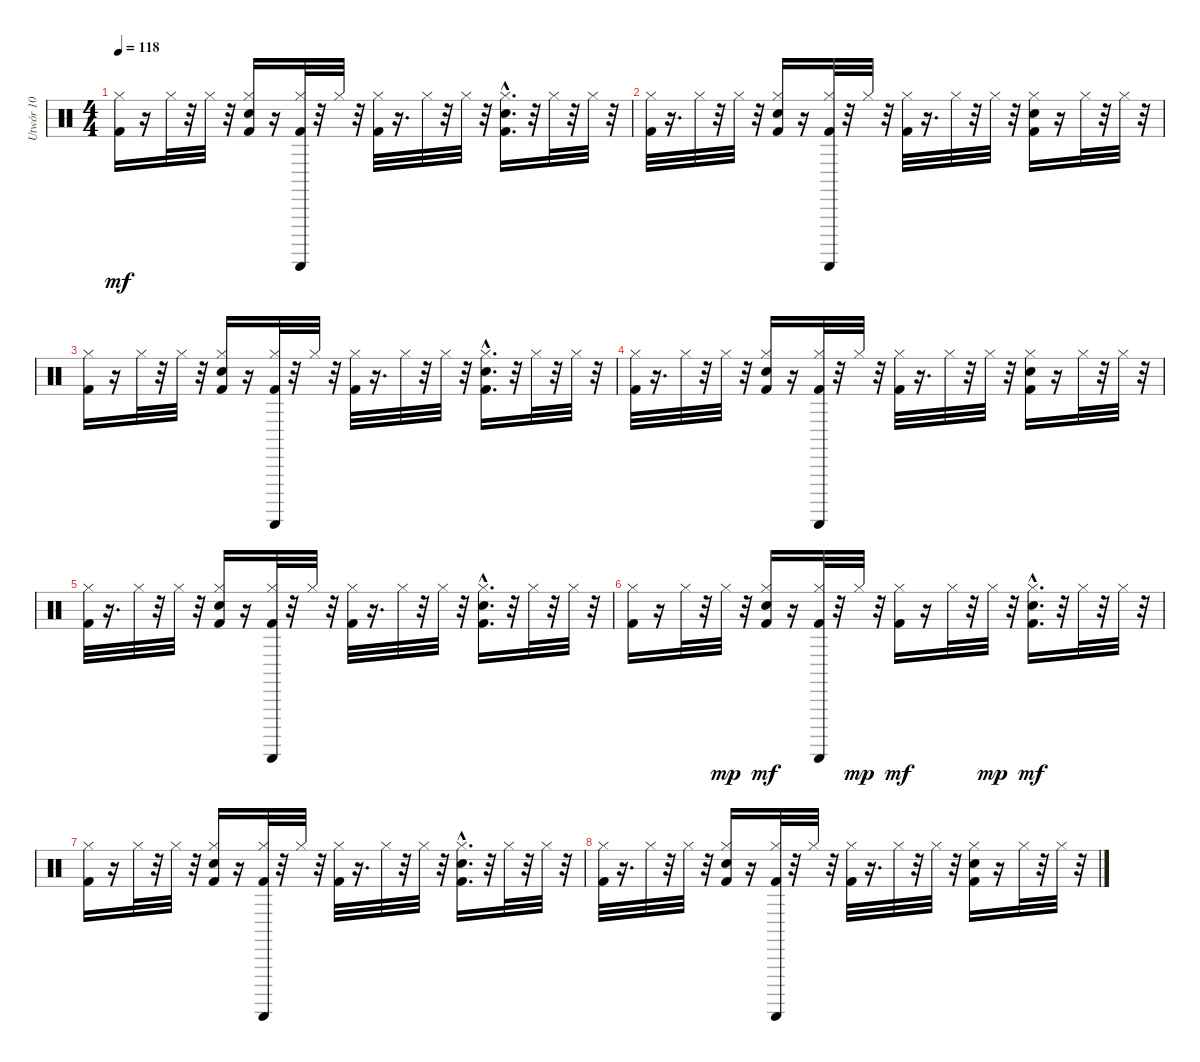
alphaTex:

\track ("Utwór 10" "Utwór 10") {instrument percussion}
\staff {score}
\articulation defaults
\ts (4 4)
\tempo 118
\clef neutral
\ks c
("Kick (hit) 2" "Hi-Hat (closed)").16{dy mf} r.16 "Hi-Hat (closed)".32 r.32 "Hi-Hat (closed)".32 r.32 ("Kick (hit) 2" "Snare (hit) 2" "Hi-Hat (closed)").16 r.16 ("Kick (hit) 2" "Hi-Hat (closed)" "Guiro (scrap-return)").32 r.32 "Hi-Hat (closed)".32 r.32 ("Kick (hit) 2" "Hi-Hat (closed)").32 r.16{d} "Hi-Hat (closed)".32 r.32 "Hi-Hat (closed)".32 r.32 ("Kick (hit) 2" "Snare (hit) 2"{hac} "Hi-Hat (closed)").16{d} r.32 "Hi-Hat (closed)".32 r.32 "Hi-Hat (closed)".32 r.32 |
("Kick (hit) 2" "Hi-Hat (closed)").32 r.16{d} "Hi-Hat (closed)".32 r.32 "Hi-Hat (closed)".32 r.32 ("Kick (hit) 2" "Snare (hit) 2" "Hi-Hat (closed)").16 r.16 ("Kick (hit) 2" "Hi-Hat (closed)" "Guiro (scrap-return)").32 r.32 "Hi-Hat (closed)".32 r.32 ("Kick (hit) 2" "Hi-Hat (closed)").32 r.16{d} "Hi-Hat (closed)".32 r.32 "Hi-Hat (closed)".32 r.32 ("Kick (hit) 2" "Snare (hit) 2" "Hi-Hat (closed)").16 r.16 "Hi-Hat (closed)".32 r.32 "Hi-Hat (closed)".32 r.32 |
("Kick (hit) 2" "Hi-Hat (closed)").16 r.16 "Hi-Hat (closed)".32 r.32 "Hi-Hat (closed)".32 r.32 ("Kick (hit) 2" "Snare (hit) 2" "Hi-Hat (closed)").16 r.16 ("Kick (hit) 2" "Hi-Hat (closed)" "Guiro (scrap-return)").32 r.32 "Hi-Hat (closed)".32 r.32 ("Kick (hit) 2" "Hi-Hat (closed)").32 r.16{d} "Hi-Hat (closed)".32 r.32 "Hi-Hat (closed)".32 r.32 ("Kick (hit) 2" "Snare (hit) 2"{hac} "Hi-Hat (closed)").16{d} r.32 "Hi-Hat (closed)".32 r.32 "Hi-Hat (closed)".32 r.32 |
("Kick (hit) 2" "Hi-Hat (closed)").32 r.16{d} "Hi-Hat (closed)".32 r.32 "Hi-Hat (closed)".32 r.32 ("Kick (hit) 2" "Snare (hit) 2" "Hi-Hat (closed)").16 r.16 ("Kick (hit) 2" "Hi-Hat (closed)" "Guiro (scrap-return)").32 r.32 "Hi-Hat (closed)".32 r.32 ("Kick (hit) 2" "Hi-Hat (closed)").32 r.16{d} "Hi-Hat (closed)".32 r.32 "Hi-Hat (closed)".32 r.32 ("Kick (hit) 2" "Snare (hit) 2" "Hi-Hat (closed)").16 r.16 "Hi-Hat (closed)".32 r.32 "Hi-Hat (closed)".32 r.32 |
("Kick (hit) 2" "Hi-Hat (closed)").32 r.16{d} "Hi-Hat (closed)".32 r.32 "Hi-Hat (closed)".32 r.32 ("Kick (hit) 2" "Snare (hit) 2" "Hi-Hat (closed)").16 r.16 ("Kick (hit) 2" "Hi-Hat (closed)" "Guiro (scrap-return)").32 r.32 "Hi-Hat (closed)".32 r.32 ("Kick (hit) 2" "Hi-Hat (closed)").32 r.16{d} "Hi-Hat (closed)".32 r.32 "Hi-Hat (closed)".32 r.32 ("Kick (hit) 2" "Snare (hit) 2"{hac} "Hi-Hat (closed)").16{d} r.32 "Hi-Hat (closed)".32 r.32 "Hi-Hat (closed)".32 r.32 |
("Kick (hit) 2" "Hi-Hat (closed)").16 r.16 "Hi-Hat (closed)".32 r.32 "Hi-Hat (closed)".32{dy mp} r.32 ("Kick (hit) 2" "Snare (hit) 2" "Hi-Hat (closed)").16{dy mf} r.16 ("Kick (hit) 2" "Hi-Hat (closed)" "Guiro (scrap-return)").32 r.32 "Hi-Hat (closed)".32{dy mp} r.32 ("Kick (hit) 2" "Hi-Hat (closed)").16{dy mf} r.16 "Hi-Hat (closed)".32 r.32 "Hi-Hat (closed)".32{dy mp} r.32 ("Kick (hit) 2" "Snare (hit) 2"{hac} "Hi-Hat (closed)").16{d dy mf} r.32 "Hi-Hat (closed)".32 r.32 "Hi-Hat (closed)".32 r.32 |
("Kick (hit) 2" "Hi-Hat (closed)").16 r.16 "Hi-Hat (closed)".32 r.32 "Hi-Hat (closed)".32 r.32 ("Kick (hit) 2" "Snare (hit) 2" "Hi-Hat (closed)").16 r.16 ("Kick (hit) 2" "Hi-Hat (closed)" "Guiro (scrap-return)").32 r.32 "Hi-Hat (closed)".32 r.32 ("Kick (hit) 2" "Hi-Hat (closed)").32 r.16{d} "Hi-Hat (closed)".32 r.32 "Hi-Hat (closed)".32 r.32 ("Kick (hit) 2" "Snare (hit) 2"{hac} "Hi-Hat (closed)").16{d} r.32 "Hi-Hat (closed)".32 r.32 "Hi-Hat (closed)".32 r.32 |
("Kick (hit) 2" "Hi-Hat (closed)").32 r.16{d} "Hi-Hat (closed)".32 r.32 "Hi-Hat (closed)".32 r.32 ("Kick (hit) 2" "Snare (hit) 2" "Hi-Hat (closed)").16 r.16 ("Kick (hit) 2" "Hi-Hat (closed)" "Guiro (scrap-return)").32 r.32 "Hi-Hat (closed)".32 r.32 ("Kick (hit) 2" "Hi-Hat (closed)").32 r.16{d} "Hi-Hat (closed)".32 r.32 "Hi-Hat (closed)".32 r.32 ("Kick (hit) 2" "Snare (hit) 2" "Hi-Hat (closed)").16 r.16 "Hi-Hat (closed)".32 r.32 "Hi-Hat (closed)".32 r.32
